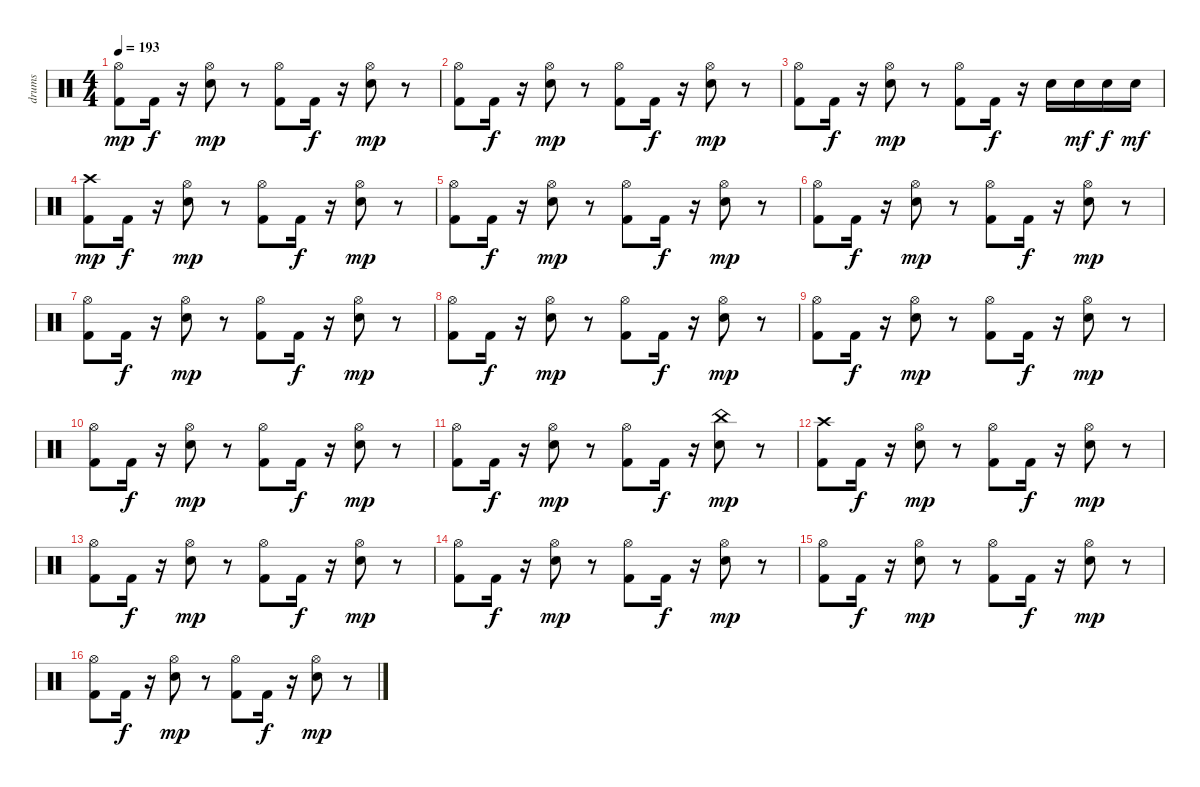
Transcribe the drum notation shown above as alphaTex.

\track ("drums" "drums") {instrument percussion}
\staff {score}
\articulation defaults
\ts (4 4)
\tempo 193
\clef neutral
\ks c
("Kick (hit) 2" "Hi-Hat (open)").8{dy mp} "Kick (hit) 2".16{dy f} r.16 ("Snare (hit) 2" "Hi-Hat (open)").8{dy mp} r.8 ("Kick (hit) 2" "Hi-Hat (open)").8 "Kick (hit) 2".16{dy f} r.16 ("Snare (hit) 2" "Hi-Hat (open)").8{dy mp} r.8 |
("Kick (hit) 2" "Hi-Hat (open)").8 "Kick (hit) 2".16{dy f} r.16 ("Snare (hit) 2" "Hi-Hat (open)").8{dy mp} r.8 ("Kick (hit) 2" "Hi-Hat (open)").8 "Kick (hit) 2".16{dy f} r.16 ("Snare (hit) 2" "Hi-Hat (open)").8{dy mp} r.8 |
("Kick (hit) 2" "Hi-Hat (open)").8 "Kick (hit) 2".16{dy f} r.16 ("Snare (hit) 2" "Hi-Hat (open)").8{dy mp} r.8 ("Kick (hit) 2" "Hi-Hat (open)").8 "Kick (hit) 2".16{dy f} r.16 "Snare (hit) 2".16 "Snare (hit) 2".16{dy mf} "Snare (hit) 2".16{dy f} "Snare (hit) 2".16{dy mf} |
("Kick (hit) 2" "Crash high (hit)").8{dy mp} "Kick (hit) 2".16{dy f} r.16 ("Snare (hit) 2" "Hi-Hat (open)").8{dy mp} r.8 ("Kick (hit) 2" "Hi-Hat (open)").8 "Kick (hit) 2".16{dy f} r.16 ("Snare (hit) 2" "Hi-Hat (open)").8{dy mp} r.8 |
("Kick (hit) 2" "Hi-Hat (open)").8 "Kick (hit) 2".16{dy f} r.16 ("Snare (hit) 2" "Hi-Hat (open)").8{dy mp} r.8 ("Kick (hit) 2" "Hi-Hat (open)").8 "Kick (hit) 2".16{dy f} r.16 ("Snare (hit) 2" "Hi-Hat (open)").8{dy mp} r.8 |
("Kick (hit) 2" "Hi-Hat (open)").8 "Kick (hit) 2".16{dy f} r.16 ("Snare (hit) 2" "Hi-Hat (open)").8{dy mp} r.8 ("Kick (hit) 2" "Hi-Hat (open)").8 "Kick (hit) 2".16{dy f} r.16 ("Snare (hit) 2" "Hi-Hat (open)").8{dy mp} r.8 |
("Kick (hit) 2" "Hi-Hat (open)").8 "Kick (hit) 2".16{dy f} r.16 ("Snare (hit) 2" "Hi-Hat (open)").8{dy mp} r.8 ("Kick (hit) 2" "Hi-Hat (open)").8 "Kick (hit) 2".16{dy f} r.16 ("Snare (hit) 2" "Hi-Hat (open)").8{dy mp} r.8 |
("Kick (hit) 2" "Hi-Hat (open)").8 "Kick (hit) 2".16{dy f} r.16 ("Snare (hit) 2" "Hi-Hat (open)").8{dy mp} r.8 ("Kick (hit) 2" "Hi-Hat (open)").8 "Kick (hit) 2".16{dy f} r.16 ("Snare (hit) 2" "Hi-Hat (open)").8{dy mp} r.8 |
("Kick (hit) 2" "Hi-Hat (open)").8 "Kick (hit) 2".16{dy f} r.16 ("Snare (hit) 2" "Hi-Hat (open)").8{dy mp} r.8 ("Kick (hit) 2" "Hi-Hat (open)").8 "Kick (hit) 2".16{dy f} r.16 ("Snare (hit) 2" "Hi-Hat (open)").8{dy mp} r.8 |
("Kick (hit) 2" "Hi-Hat (open)").8 "Kick (hit) 2".16{dy f} r.16 ("Snare (hit) 2" "Hi-Hat (open)").8{dy mp} r.8 ("Kick (hit) 2" "Hi-Hat (open)").8 "Kick (hit) 2".16{dy f} r.16 ("Snare (hit) 2" "Hi-Hat (open)").8{dy mp} r.8 |
("Kick (hit) 2" "Hi-Hat (open)").8 "Kick (hit) 2".16{dy f} r.16 ("Snare (hit) 2" "Hi-Hat (open)").8{dy mp} r.8 ("Kick (hit) 2" "Hi-Hat (open)").8 "Kick (hit) 2".16{dy f} r.16 ("Snare (hit) 2" "China (hit)").8{dy mp} r.8 |
("Kick (hit) 2" "Crash high (hit)").8 "Kick (hit) 2".16{dy f} r.16 ("Snare (hit) 2" "Hi-Hat (open)").8{dy mp} r.8 ("Kick (hit) 2" "Hi-Hat (open)").8 "Kick (hit) 2".16{dy f} r.16 ("Snare (hit) 2" "Hi-Hat (open)").8{dy mp} r.8 |
("Kick (hit) 2" "Hi-Hat (open)").8 "Kick (hit) 2".16{dy f} r.16 ("Snare (hit) 2" "Hi-Hat (open)").8{dy mp} r.8 ("Kick (hit) 2" "Hi-Hat (open)").8 "Kick (hit) 2".16{dy f} r.16 ("Snare (hit) 2" "Hi-Hat (open)").8{dy mp} r.8 |
("Kick (hit) 2" "Hi-Hat (open)").8 "Kick (hit) 2".16{dy f} r.16 ("Snare (hit) 2" "Hi-Hat (open)").8{dy mp} r.8 ("Kick (hit) 2" "Hi-Hat (open)").8 "Kick (hit) 2".16{dy f} r.16 ("Snare (hit) 2" "Hi-Hat (open)").8{dy mp} r.8 |
("Kick (hit) 2" "Hi-Hat (open)").8 "Kick (hit) 2".16{dy f} r.16 ("Snare (hit) 2" "Hi-Hat (open)").8{dy mp} r.8 ("Kick (hit) 2" "Hi-Hat (open)").8 "Kick (hit) 2".16{dy f} r.16 ("Snare (hit) 2" "Hi-Hat (open)").8{dy mp} r.8 |
("Kick (hit) 2" "Hi-Hat (open)").8 "Kick (hit) 2".16{dy f} r.16 ("Snare (hit) 2" "Hi-Hat (open)").8{dy mp} r.8 ("Kick (hit) 2" "Hi-Hat (open)").8 "Kick (hit) 2".16{dy f} r.16 ("Snare (hit) 2" "Hi-Hat (open)").8{dy mp} r.8
